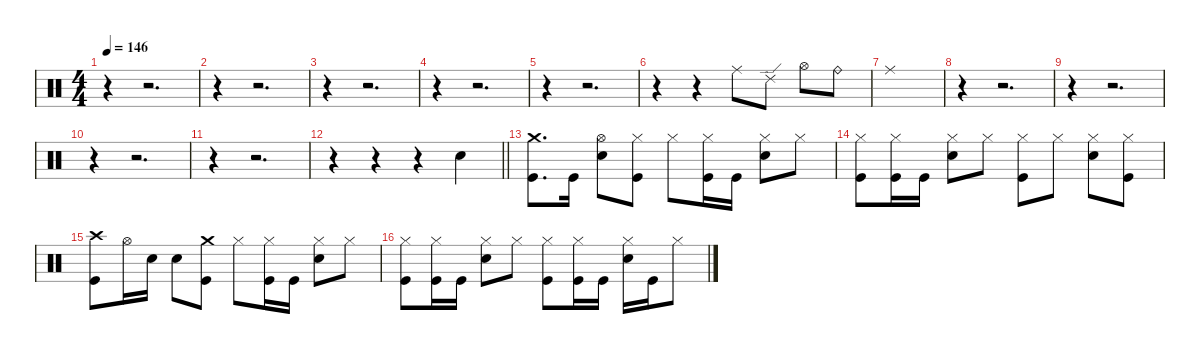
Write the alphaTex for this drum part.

\defaultSystemsLayout 4
\hideDynamics
\bracketExtendMode nobrackets
\singleTrackTrackNamePolicy hidden
\multiTrackTrackNamePolicy hidden
\firstSystemTrackNameMode fullname
\firstSystemTrackNameOrientation horizontal
\otherSystemsTrackNameOrientation horizontal
\track ("Drums" "drm.") {instrument percussion}
\staff {score}
\articulation defaults
\ts (4 4)
\beaming (8 2 2 2 2)
\tempo 146
\clef neutral
\ks c
r.4{dy f beam Down} r.2{d beam Down} |
r.4{beam Down} r.2{d beam Down} |
r.4{beam Down} r.2{d beam Down} |
r.4{beam Down} r.2{d beam Down} |
r.4{beam Down} r.2{d beam Down} |
r.4{beam Down} r.4{beam Down} "Ride (middle)".8{beam Down} "Ride (edge) 2".8{beam Down} "Hi-Hat (open)".8{beam Down} "Ride (bell)".8{beam Down} |
"Ride (middle)".1{beam Down} |
r.4{beam Down} r.2{d beam Down} |
r.4{beam Down} r.2{d beam Down} |
r.4{beam Down} r.2{d beam Down} |
r.4{beam Down} r.2{d beam Down} |
\barLineRight lightlight
r.4{beam Down} r.4{beam Down} r.4{beam Down} "Snare (hit) 2".4{beam Down} |
("Crash medium (hit)" "Kick (hit)").8{d beam Down} "Kick (hit)".16{beam Down} ("Hi-Hat (open)" "Snare (hit) 2").8{beam Down} ("Hi-Hat (closed)" "Kick (hit)").8{beam Down} "Hi-Hat (closed)".8{beam Down} ("Hi-Hat (closed)" "Kick (hit)").16{beam Down} "Kick (hit)".16{beam Down} ("Hi-Hat (closed)" "Snare (hit) 2").8{beam Down} "Hi-Hat (closed)".8{beam Down} |
("Hi-Hat (closed)" "Kick (hit)").8{beam Down} ("Hi-Hat (closed)" "Kick (hit)").16{beam Down} "Kick (hit)".16{beam Down} ("Hi-Hat (closed)" "Snare (hit) 2").8{beam Down} "Hi-Hat (closed)".8{beam Down} ("Hi-Hat (closed)" "Kick (hit)").8{beam Down} "Hi-Hat (closed)".8{beam Down} ("Hi-Hat (closed)" "Snare (hit) 2").8{beam Down} ("Hi-Hat (closed)" "Kick (hit)").8{beam Down} |
("Crash high (hit)" "Kick (hit)").8{beam Down} "Hi-Hat (open)".16{beam Down} "Snare (hit) 2".16{beam Down} "Snare (hit) 2".8{beam Down} ("Crash medium (hit)" "Kick (hit)").8{beam Down} "Hi-Hat (closed)".8{beam Down} ("Hi-Hat (closed)" "Kick (hit)").16{beam Down} "Kick (hit)".16{beam Down} ("Hi-Hat (closed)" "Snare (hit) 2").8{beam Down} "Hi-Hat (closed)".8{beam Down} |
("Hi-Hat (closed)" "Kick (hit)").8{beam Down} ("Hi-Hat (closed)" "Kick (hit)").16{beam Down} "Kick (hit)".16{beam Down} ("Hi-Hat (closed)" "Snare (hit) 2").8{beam Down} "Hi-Hat (closed)".8{beam Down} ("Hi-Hat (closed)" "Kick (hit)").8{beam Down} ("Hi-Hat (closed)" "Kick (hit)").16{beam Down} "Kick (hit)".16{beam Down} ("Hi-Hat (closed)" "Snare (hit) 2").16{beam Down} "Kick (hit)".16{beam Down} "Hi-Hat (closed)".8{beam Down}
